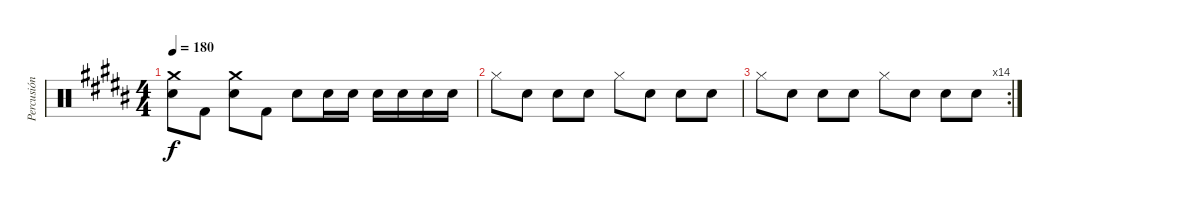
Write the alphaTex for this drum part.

\track ("Percusión" "Percusión") {instrument percussion}
\staff {score}
\articulation defaults
\ts (4 4)
\tempo 180
\clef neutral
\ks b
("Crash medium (hit)" "Electric Snare (hit)").8{dy f} "Kick (hit) 2".8 ("Crash medium (hit)" "Electric Snare (hit)").8 "Kick (hit) 2".8 "Electric Snare (hit)".8 "Electric Snare (hit)".16 "Electric Snare (hit)".16 "Electric Snare (hit)".16 "Electric Snare (hit)".16 "Electric Snare (hit)".16 "Electric Snare (hit)".16 |
"Hi-Hat (closed)".8 "Electric Snare (hit)".8 "Electric Snare (hit)".8 "Electric Snare (hit)".8 "Hi-Hat (closed)".8 "Electric Snare (hit)".8 "Electric Snare (hit)".8 "Electric Snare (hit)".8 |
\rc 14 "Hi-Hat (closed)".8 "Electric Snare (hit)".8 "Electric Snare (hit)".8 "Electric Snare (hit)".8 "Hi-Hat (closed)".8 "Electric Snare (hit)".8 "Electric Snare (hit)".8 "Electric Snare (hit)".8
